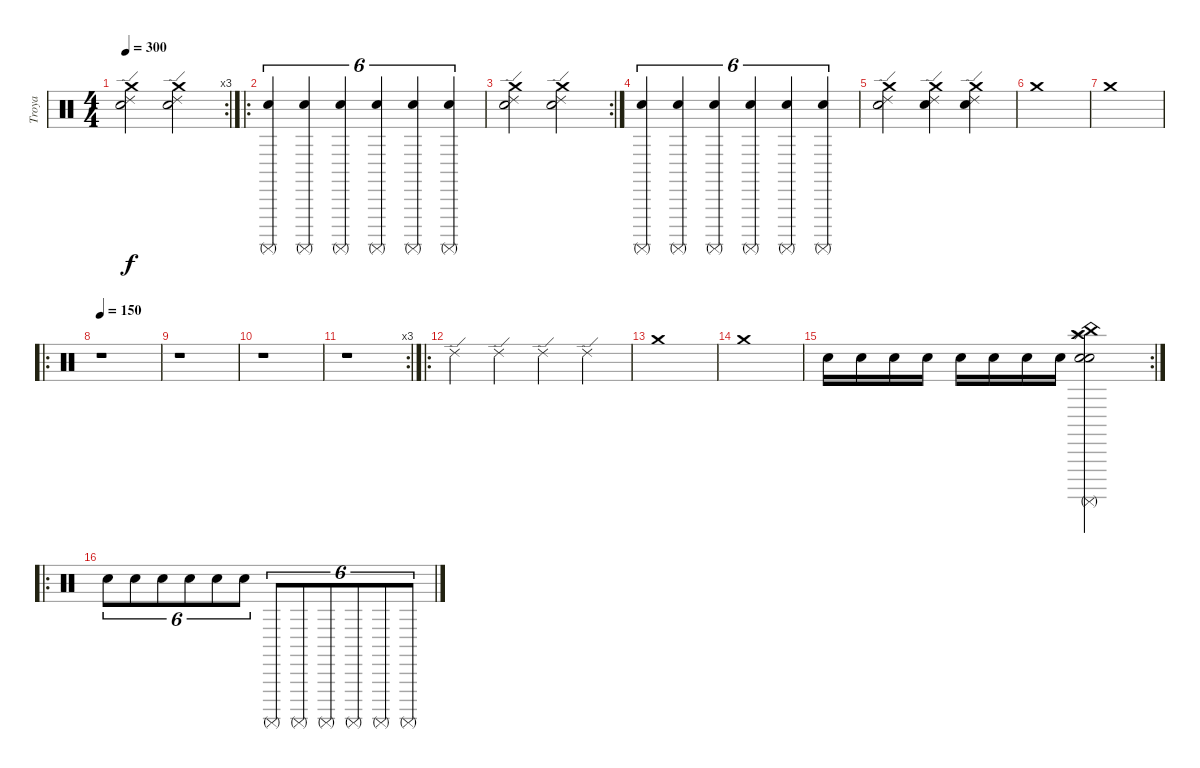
\track ("Troya" "Troya") {instrument percussion}
\staff {score}
\articulation defaults
\rc 3
\ts (4 4)
\tempo 300
\clef neutral
\ks c
("Crash medium (hit)" "Ride (edge) 2" "Electric Snare (hit)").2{dy f} ("Crash medium (hit)" "Ride (edge) 2" "Electric Snare (hit)").2 |
\ro
("Electric Snare (hit)" "Surdo (mute)").4{tu (6 4)} ("Electric Snare (hit)" "Surdo (mute)").4{tu (6 4)} ("Electric Snare (hit)" "Surdo (mute)").4{tu (6 4)} ("Electric Snare (hit)" "Surdo (mute)").4{tu (6 4)} ("Electric Snare (hit)" "Surdo (mute)").4{tu (6 4)} ("Electric Snare (hit)" "Surdo (mute)").4{tu (6 4)} |
\rc 2
("Crash medium (hit)" "Ride (edge) 2" "Electric Snare (hit)").2 ("Crash medium (hit)" "Ride (edge) 2" "Electric Snare (hit)").2 |
("Electric Snare (hit)" "Surdo (mute)").4{tu (6 4)} ("Electric Snare (hit)" "Surdo (mute)").4{tu (6 4)} ("Electric Snare (hit)" "Surdo (mute)").4{tu (6 4)} ("Electric Snare (hit)" "Surdo (mute)").4{tu (6 4)} ("Electric Snare (hit)" "Surdo (mute)").4{tu (6 4)} ("Electric Snare (hit)" "Surdo (mute)").4{tu (6 4)} |
("Crash medium (hit)" "Ride (edge) 2" "Electric Snare (hit)").2 ("Crash medium (hit)" "Ride (edge) 2" "Electric Snare (hit)").4 ("Electric Snare (hit)" "Ride (edge) 2" "Crash medium (hit)").4 |
"Crash medium (hit)".1 |
"Crash medium (hit)".1 |
\ro
\tempo 150
r.1 |
r.1 |
r.1 |
\rc 3
r.1 |
\ro "Ride (edge) 2".4 "Ride (edge) 2".4 "Ride (edge) 2".4 "Ride (edge) 2".4
|
"Crash medium (hit)".1 |
"Crash medium (hit)".1 |
\rc 2 "Snare (hit) 2".16 "Snare (hit) 2".16 "Snare (hit) 2".16 "Snare (hit) 2".16 "Snare (hit) 2".16 "Snare (hit) 2".16 "Snare (hit) 2".16 "Snare (hit) 2".16
("China (hit)" "Crash high (hit)" "Splash (hit)" "Surdo (mute)" "Electric Snare (hit)" "Snare (hit) 2").2 |
\ro "Electric Snare (hit)".8{tu (6 4)} "Electric Snare (hit)".8{tu (6 4)} "Electric Snare (hit)".8{tu (6 4)} "Electric Snare (hit)".8{tu (6 4)} "Electric Snare (hit)".8{tu (6 4)} "Electric Snare (hit)".8{tu (6 4)} "Surdo (mute)".8{tu (6 4)} "Surdo (mute)".8{tu (6 4)} "Surdo (mute)".8{tu (6 4)} "Surdo (mute)".8{tu (6 4)} "Surdo (mute)".8{tu (6 4)} "Surdo (mute)".8{tu (6 4)}
